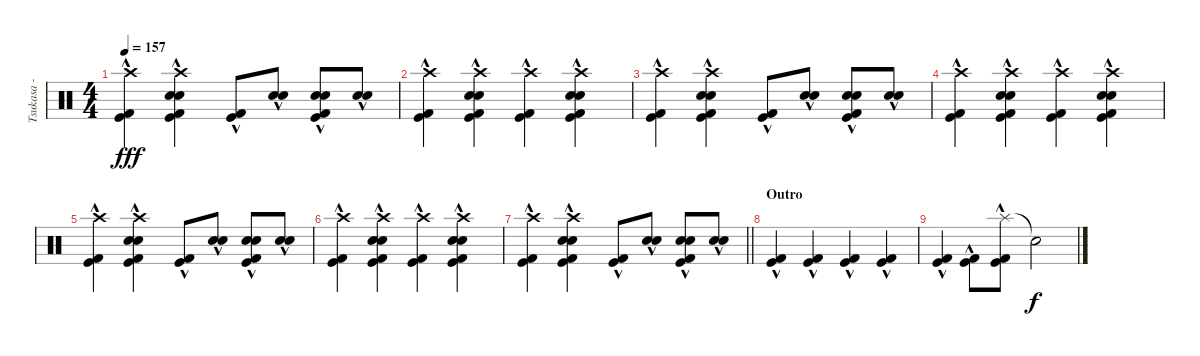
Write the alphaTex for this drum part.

\track ("Tsukasa - Drums" "Tsukasa - ") {instrument percussion}
\staff {score}
\articulation defaults
\ts (4 4)
\tempo 157
\clef neutral
\ks c
("Crash high (hit)" "Kick (hit)"{hac} "Kick (hit) 2"{hac}).4{dy fff} ("Crash high (hit)" "Electric Snare (hit)"{hac} "Snare (hit) 2" "Kick (hit)"{hac} "Kick (hit) 2"{hac}).4 ("Kick (hit)"{hac} "Kick (hit) 2"{hac}).8 ("Electric Snare (hit)"{hac} "Snare (hit) 2"{hac}).8 ("Electric Snare (hit)"{hac} "Snare (hit) 2"{hac} "Kick (hit)"{hac} "Kick (hit) 2"{hac}).8 ("Electric Snare (hit)"{hac} "Snare (hit) 2"{hac}).8 |
("Crash high (hit)" "Kick (hit)"{hac} "Kick (hit) 2"{hac}).4 ("Crash high (hit)" "Electric Snare (hit)"{hac} "Snare (hit) 2" "Kick (hit)"{hac} "Kick (hit) 2"{hac}).4 ("Crash high (hit)" "Kick (hit)"{hac} "Kick (hit) 2"{hac}).4 ("Crash high (hit)" "Electric Snare (hit)"{hac} "Snare (hit) 2" "Kick (hit)"{hac} "Kick (hit) 2"{hac}).4 |
("Crash high (hit)" "Kick (hit)"{hac} "Kick (hit) 2"{hac}).4 ("Crash high (hit)" "Electric Snare (hit)"{hac} "Snare (hit) 2" "Kick (hit)"{hac} "Kick (hit) 2"{hac}).4 ("Kick (hit)"{hac} "Kick (hit) 2"{hac}).8 ("Electric Snare (hit)"{hac} "Snare (hit) 2"{hac}).8 ("Electric Snare (hit)"{hac} "Snare (hit) 2"{hac} "Kick (hit)"{hac} "Kick (hit) 2"{hac}).8 ("Electric Snare (hit)"{hac} "Snare (hit) 2"{hac}).8 |
("Crash high (hit)" "Kick (hit)"{hac} "Kick (hit) 2"{hac}).4 ("Crash high (hit)" "Electric Snare (hit)"{hac} "Snare (hit) 2" "Kick (hit)"{hac} "Kick (hit) 2"{hac}).4 ("Crash high (hit)" "Kick (hit)"{hac} "Kick (hit) 2"{hac}).4 ("Crash high (hit)" "Electric Snare (hit)"{hac} "Snare (hit) 2" "Kick (hit)"{hac} "Kick (hit) 2"{hac}).4 |
("Crash high (hit)" "Kick (hit)"{hac} "Kick (hit) 2"{hac}).4 ("Crash high (hit)" "Electric Snare (hit)"{hac} "Snare (hit) 2" "Kick (hit)"{hac} "Kick (hit) 2"{hac}).4 ("Kick (hit)"{hac} "Kick (hit) 2"{hac}).8 ("Electric Snare (hit)"{hac} "Snare (hit) 2"{hac}).8 ("Electric Snare (hit)"{hac} "Snare (hit) 2"{hac} "Kick (hit)"{hac} "Kick (hit) 2"{hac}).8 ("Electric Snare (hit)"{hac} "Snare (hit) 2"{hac}).8 |
("Crash high (hit)" "Kick (hit)"{hac} "Kick (hit) 2"{hac}).4 ("Crash high (hit)" "Electric Snare (hit)"{hac} "Snare (hit) 2" "Kick (hit)"{hac} "Kick (hit) 2"{hac}).4 ("Crash high (hit)" "Kick (hit)"{hac} "Kick (hit) 2"{hac}).4 ("Crash high (hit)" "Electric Snare (hit)"{hac} "Snare (hit) 2" "Kick (hit)"{hac} "Kick (hit) 2"{hac}).4 |
\barLineRight lightlight
("Crash high (hit)" "Kick (hit)"{hac} "Kick (hit) 2"{hac}).4 ("Crash high (hit)" "Electric Snare (hit)"{hac} "Snare (hit) 2" "Kick (hit)"{hac} "Kick (hit) 2"{hac}).4 ("Kick (hit)"{hac} "Kick (hit) 2"{hac}).8 ("Electric Snare (hit)"{hac} "Snare (hit) 2"{hac}).8 ("Electric Snare (hit)"{hac} "Snare (hit) 2"{hac} "Kick (hit)"{hac} "Kick (hit) 2"{hac}).8 ("Electric Snare (hit)"{hac} "Snare (hit) 2"{hac}).8 |
\section ("" "Outro")
("Kick (hit)"{hac} "Kick (hit) 2"{hac}).4 ("Kick (hit)"{hac} "Kick (hit) 2"{hac}).4 ("Kick (hit)"{hac} "Kick (hit) 2"{hac}).4 ("Kick (hit)"{hac} "Kick (hit) 2"{hac}).4 |
("Kick (hit)"{hac} "Kick (hit) 2"{hac}).4 ("Kick (hit)"{hac} "Kick (hit) 2"{hac}).8 ("Splash (hit)"{hac} "Kick (hit)"{hac} "Kick (hit) 2"{hac}).8 "Snare (hit)"{t}.2{dy f}
